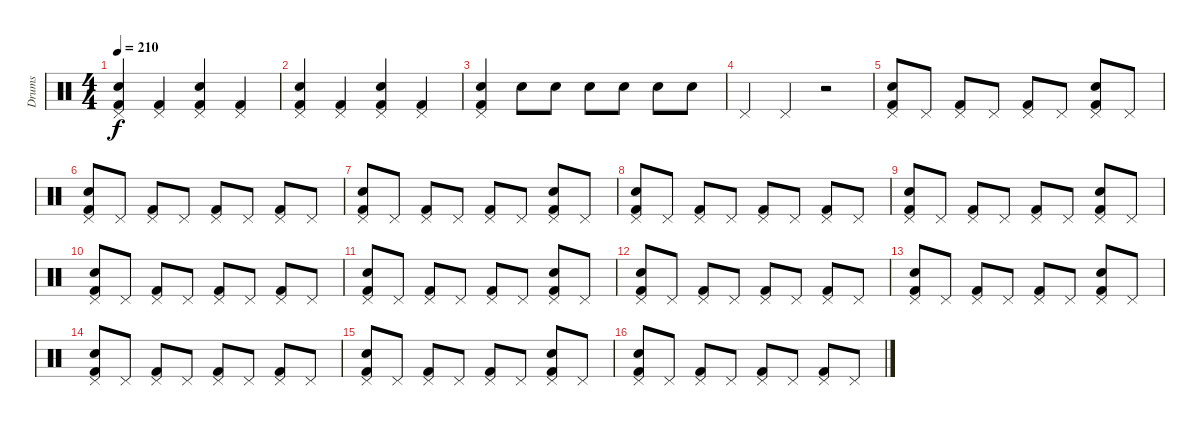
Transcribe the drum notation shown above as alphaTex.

\track ("Drums" "Drums") {instrument percussion}
\staff {score}
\articulation defaults
\ts (4 4)
\tempo 210
\clef neutral
\ks c
("Kick (hit) 2" "Pedal Hi-Hat (hit)" "Snare (hit) 2").4{dy f} ("Kick (hit) 2" "Pedal Hi-Hat (hit)").4 ("Kick (hit) 2" "Pedal Hi-Hat (hit)" "Snare (hit) 2").4 ("Kick (hit) 2" "Pedal Hi-Hat (hit)").4 |
("Kick (hit) 2" "Pedal Hi-Hat (hit)" "Snare (hit) 2").4 ("Kick (hit) 2" "Pedal Hi-Hat (hit)").4 ("Kick (hit) 2" "Pedal Hi-Hat (hit)" "Snare (hit) 2").4 ("Kick (hit) 2" "Pedal Hi-Hat (hit)").4 |
("Kick (hit) 2" "Pedal Hi-Hat (hit)" "Snare (hit) 2").4 "Snare (hit) 2".8 "Snare (hit) 2".8 "Snare (hit) 2".8 "Snare (hit) 2".8 "Snare (hit) 2".8 "Snare (hit) 2".8 |
"Pedal Hi-Hat (hit)".4 "Pedal Hi-Hat (hit)".4 r.2 |
("Kick (hit) 2" "Pedal Hi-Hat (hit)" "Snare (hit) 2").8 "Pedal Hi-Hat (hit)".8 ("Kick (hit) 2" "Pedal Hi-Hat (hit)").8 "Pedal Hi-Hat (hit)".8 ("Kick (hit) 2" "Pedal Hi-Hat (hit)").8 "Pedal Hi-Hat (hit)".8 ("Kick (hit) 2" "Pedal Hi-Hat (hit)" "Snare (hit) 2").8 "Pedal Hi-Hat (hit)".8 |
("Kick (hit) 2" "Pedal Hi-Hat (hit)" "Snare (hit) 2").8 "Pedal Hi-Hat (hit)".8 ("Kick (hit) 2" "Pedal Hi-Hat (hit)").8 "Pedal Hi-Hat (hit)".8 ("Kick (hit) 2" "Pedal Hi-Hat (hit)").8 "Pedal Hi-Hat (hit)".8 ("Kick (hit) 2" "Pedal Hi-Hat (hit)").8 "Pedal Hi-Hat (hit)".8 |
("Kick (hit) 2" "Pedal Hi-Hat (hit)" "Snare (hit) 2").8 "Pedal Hi-Hat (hit)".8 ("Kick (hit) 2" "Pedal Hi-Hat (hit)").8 "Pedal Hi-Hat (hit)".8 ("Kick (hit) 2" "Pedal Hi-Hat (hit)").8 "Pedal Hi-Hat (hit)".8 ("Kick (hit) 2" "Pedal Hi-Hat (hit)" "Snare (hit) 2").8 "Pedal Hi-Hat (hit)".8 |
("Kick (hit) 2" "Pedal Hi-Hat (hit)" "Snare (hit) 2").8 "Pedal Hi-Hat (hit)".8 ("Kick (hit) 2" "Pedal Hi-Hat (hit)").8 "Pedal Hi-Hat (hit)".8 ("Kick (hit) 2" "Pedal Hi-Hat (hit)").8 "Pedal Hi-Hat (hit)".8 ("Kick (hit) 2" "Pedal Hi-Hat (hit)").8 "Pedal Hi-Hat (hit)".8 |
("Kick (hit) 2" "Pedal Hi-Hat (hit)" "Snare (hit) 2").8 "Pedal Hi-Hat (hit)".8 ("Kick (hit) 2" "Pedal Hi-Hat (hit)").8 "Pedal Hi-Hat (hit)".8 ("Kick (hit) 2" "Pedal Hi-Hat (hit)").8 "Pedal Hi-Hat (hit)".8 ("Kick (hit) 2" "Pedal Hi-Hat (hit)" "Snare (hit) 2").8 "Pedal Hi-Hat (hit)".8 |
("Kick (hit) 2" "Pedal Hi-Hat (hit)" "Snare (hit) 2").8 "Pedal Hi-Hat (hit)".8 ("Kick (hit) 2" "Pedal Hi-Hat (hit)").8 "Pedal Hi-Hat (hit)".8 ("Kick (hit) 2" "Pedal Hi-Hat (hit)").8 "Pedal Hi-Hat (hit)".8 ("Kick (hit) 2" "Pedal Hi-Hat (hit)").8 "Pedal Hi-Hat (hit)".8 |
("Kick (hit) 2" "Pedal Hi-Hat (hit)" "Snare (hit) 2").8 "Pedal Hi-Hat (hit)".8 ("Kick (hit) 2" "Pedal Hi-Hat (hit)").8 "Pedal Hi-Hat (hit)".8 ("Kick (hit) 2" "Pedal Hi-Hat (hit)").8 "Pedal Hi-Hat (hit)".8 ("Kick (hit) 2" "Pedal Hi-Hat (hit)" "Snare (hit) 2").8 "Pedal Hi-Hat (hit)".8 |
("Kick (hit) 2" "Pedal Hi-Hat (hit)" "Snare (hit) 2").8 "Pedal Hi-Hat (hit)".8 ("Kick (hit) 2" "Pedal Hi-Hat (hit)").8 "Pedal Hi-Hat (hit)".8 ("Kick (hit) 2" "Pedal Hi-Hat (hit)").8 "Pedal Hi-Hat (hit)".8 ("Kick (hit) 2" "Pedal Hi-Hat (hit)").8 "Pedal Hi-Hat (hit)".8 |
("Kick (hit) 2" "Pedal Hi-Hat (hit)" "Snare (hit) 2").8 "Pedal Hi-Hat (hit)".8 ("Kick (hit) 2" "Pedal Hi-Hat (hit)").8 "Pedal Hi-Hat (hit)".8 ("Kick (hit) 2" "Pedal Hi-Hat (hit)").8 "Pedal Hi-Hat (hit)".8 ("Kick (hit) 2" "Pedal Hi-Hat (hit)" "Snare (hit) 2").8 "Pedal Hi-Hat (hit)".8 |
("Kick (hit) 2" "Pedal Hi-Hat (hit)" "Snare (hit) 2").8 "Pedal Hi-Hat (hit)".8 ("Kick (hit) 2" "Pedal Hi-Hat (hit)").8 "Pedal Hi-Hat (hit)".8 ("Kick (hit) 2" "Pedal Hi-Hat (hit)").8 "Pedal Hi-Hat (hit)".8 ("Kick (hit) 2" "Pedal Hi-Hat (hit)").8 "Pedal Hi-Hat (hit)".8 |
("Kick (hit) 2" "Pedal Hi-Hat (hit)" "Snare (hit) 2").8 "Pedal Hi-Hat (hit)".8 ("Kick (hit) 2" "Pedal Hi-Hat (hit)").8 "Pedal Hi-Hat (hit)".8 ("Kick (hit) 2" "Pedal Hi-Hat (hit)").8 "Pedal Hi-Hat (hit)".8 ("Kick (hit) 2" "Pedal Hi-Hat (hit)" "Snare (hit) 2").8 "Pedal Hi-Hat (hit)".8 |
("Kick (hit) 2" "Pedal Hi-Hat (hit)" "Snare (hit) 2").8 "Pedal Hi-Hat (hit)".8 ("Kick (hit) 2" "Pedal Hi-Hat (hit)").8 "Pedal Hi-Hat (hit)".8 ("Kick (hit) 2" "Pedal Hi-Hat (hit)").8 "Pedal Hi-Hat (hit)".8 ("Kick (hit) 2" "Pedal Hi-Hat (hit)").8 "Pedal Hi-Hat (hit)".8
